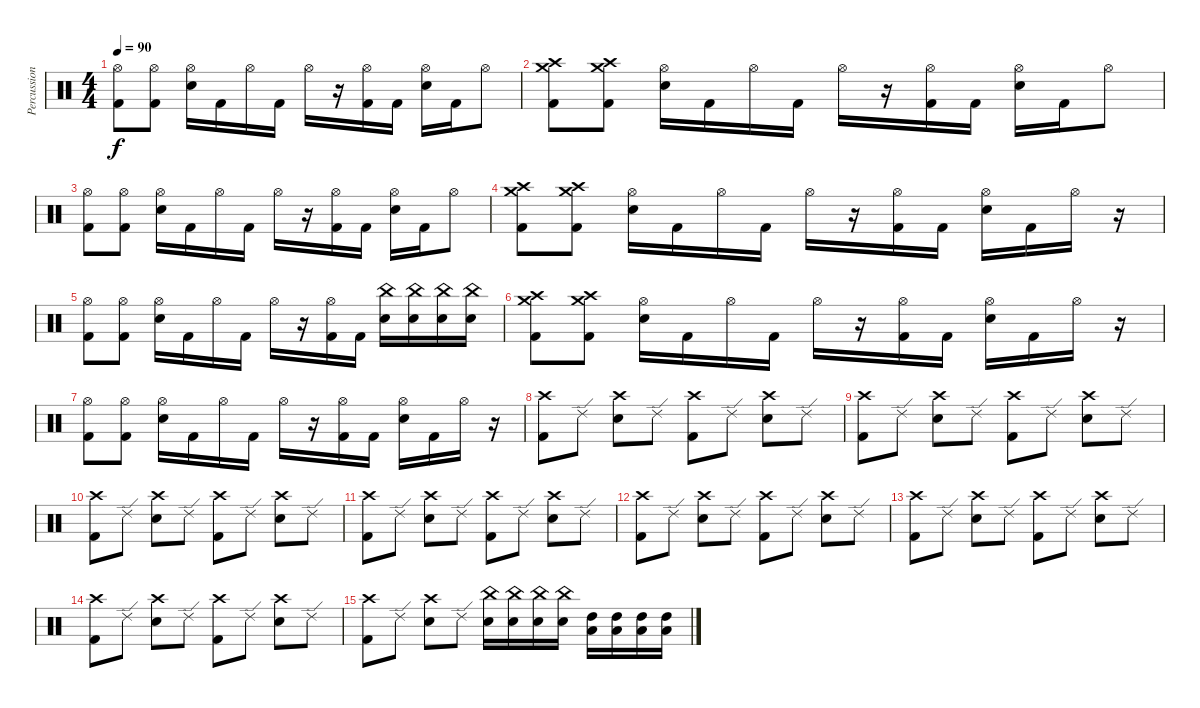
\track ("Percussion" "Percussion") {instrument percussion}
\staff {score}
\articulation defaults
\ts (4 4)
\tempo 90
\clef neutral
\ks c
("Hi-Hat (open)" "Kick (hit) 2").8{dy f} ("Hi-Hat (open)" "Kick (hit) 2").8 ("Hi-Hat (open)" "Electric Snare (hit)").16 "Kick (hit) 2".16 "Hi-Hat (open)".16 "Kick (hit) 2".16 "Hi-Hat (open)".16 r.16 ("Hi-Hat (open)" "Kick (hit) 2").16 "Kick (hit) 2".16 ("Hi-Hat (open)" "Electric Snare (hit)").16 "Kick (hit) 2".16 "Hi-Hat (open)".8 |
("Crash high (hit)" "Crash medium (hit)" "Kick (hit) 2").8 ("Crash high (hit)" "Crash medium (hit)" "Kick (hit) 2").8 ("Hi-Hat (open)" "Electric Snare (hit)").16 "Kick (hit) 2".16 "Hi-Hat (open)".16 "Kick (hit) 2".16 "Hi-Hat (open)".16 r.16 ("Hi-Hat (open)" "Kick (hit) 2").16 "Kick (hit) 2".16 ("Hi-Hat (open)" "Electric Snare (hit)").16 "Kick (hit) 2".16 "Hi-Hat (open)".8 |
("Hi-Hat (open)" "Kick (hit) 2").8 ("Hi-Hat (open)" "Kick (hit) 2").8 ("Hi-Hat (open)" "Electric Snare (hit)").16 "Kick (hit) 2".16 "Hi-Hat (open)".16 "Kick (hit) 2".16 "Hi-Hat (open)".16 r.16 ("Hi-Hat (open)" "Kick (hit) 2").16 "Kick (hit) 2".16 ("Hi-Hat (open)" "Electric Snare (hit)").16 "Kick (hit) 2".16 "Hi-Hat (open)".8 |
("Crash high (hit)" "Crash medium (hit)" "Kick (hit) 2").8 ("Crash high (hit)" "Crash medium (hit)" "Kick (hit) 2").8 ("Hi-Hat (open)" "Electric Snare (hit)").16 "Kick (hit) 2".16 "Hi-Hat (open)".16 "Kick (hit) 2".16 "Hi-Hat (open)".16 r.16 ("Hi-Hat (open)" "Kick (hit) 2").16 "Kick (hit) 2".16 ("Hi-Hat (open)" "Electric Snare (hit)").16 "Kick (hit) 2".16 "Hi-Hat (open)".16 r.16 |
("Hi-Hat (open)" "Kick (hit) 2").8 ("Hi-Hat (open)" "Kick (hit) 2").8 ("Hi-Hat (open)" "Electric Snare (hit)").16 "Kick (hit) 2".16 "Hi-Hat (open)".16 "Kick (hit) 2".16 "Hi-Hat (open)".16 r.16 ("Hi-Hat (open)" "Kick (hit) 2").16 "Kick (hit) 2".16 ("China (hit)" "Electric Snare (hit)").16 ("China (hit)" "Electric Snare (hit)").16 ("China (hit)" "Electric Snare (hit)").16 ("China (hit)" "Electric Snare (hit)").16 |
("Crash high (hit)" "Crash medium (hit)" "Kick (hit) 2").8 ("Crash high (hit)" "Crash medium (hit)" "Kick (hit) 2").8 ("Hi-Hat (open)" "Electric Snare (hit)").16 "Kick (hit) 2".16 "Hi-Hat (open)".16 "Kick (hit) 2".16 "Hi-Hat (open)".16 r.16 ("Hi-Hat (open)" "Kick (hit) 2").16 "Kick (hit) 2".16 ("Hi-Hat (open)" "Electric Snare (hit)").16 "Kick (hit) 2".16 "Hi-Hat (open)".16 r.16 |
("Hi-Hat (open)" "Kick (hit) 2").8 ("Hi-Hat (open)" "Kick (hit) 2").8 ("Hi-Hat (open)" "Electric Snare (hit)").16 "Kick (hit) 2".16 "Hi-Hat (open)".16 "Kick (hit) 2".16 "Hi-Hat (open)".16 r.16 ("Hi-Hat (open)" "Kick (hit) 2").16 "Kick (hit) 2".16 ("Hi-Hat (open)" "Electric Snare (hit)").16 "Kick (hit) 2".16 "Hi-Hat (open)".16 r.16 |
("Crash high (hit)" "Kick (hit) 2").8 "Ride (edge) 2".8 ("Crash high (hit)" "Electric Snare (hit)").8 "Ride (edge) 2".8 ("Crash high (hit)" "Kick (hit) 2").8 "Ride (edge) 2".8 ("Crash high (hit)" "Electric Snare (hit)").8 "Ride (edge) 2".8 |
("Crash high (hit)" "Kick (hit) 2").8 "Ride (edge) 2".8 ("Crash high (hit)" "Electric Snare (hit)").8 "Ride (edge) 2".8 ("Crash high (hit)" "Kick (hit) 2").8 "Ride (edge) 2".8 ("Crash high (hit)" "Electric Snare (hit)").8 "Ride (edge) 2".8 |
("Crash high (hit)" "Kick (hit) 2").8 "Ride (edge) 2".8 ("Crash high (hit)" "Electric Snare (hit)").8 "Ride (edge) 2".8 ("Crash high (hit)" "Kick (hit) 2").8 "Ride (edge) 2".8 ("Crash high (hit)" "Electric Snare (hit)").8 "Ride (edge) 2".8 |
("Crash high (hit)" "Kick (hit) 2").8 "Ride (edge) 2".8 ("Crash high (hit)" "Electric Snare (hit)").8 "Ride (edge) 2".8 ("Crash high (hit)" "Kick (hit) 2").8 "Ride (edge) 2".8 ("Crash high (hit)" "Electric Snare (hit)").8 "Ride (edge) 2".8 |
("Crash high (hit)" "Kick (hit) 2").8 "Ride (edge) 2".8 ("Crash high (hit)" "Electric Snare (hit)").8 "Ride (edge) 2".8 ("Crash high (hit)" "Kick (hit) 2").8 "Ride (edge) 2".8 ("Crash high (hit)" "Electric Snare (hit)").8 "Ride (edge) 2".8 |
("Crash high (hit)" "Kick (hit) 2").8 "Ride (edge) 2".8 ("Crash high (hit)" "Electric Snare (hit)").8 "Ride (edge) 2".8 ("Crash high (hit)" "Kick (hit) 2").8 "Ride (edge) 2".8 ("Crash high (hit)" "Electric Snare (hit)").8 "Ride (edge) 2".8 |
("Crash high (hit)" "Kick (hit) 2").8 "Ride (edge) 2".8 ("Crash high (hit)" "Electric Snare (hit)").8 "Ride (edge) 2".8 ("Crash high (hit)" "Kick (hit) 2").8 "Ride (edge) 2".8 ("Crash high (hit)" "Electric Snare (hit)").8 "Ride (edge) 2".8 |
("Crash high (hit)" "Kick (hit) 2").8 "Ride (edge) 2".8 ("Crash high (hit)" "Electric Snare (hit)").8 "Ride (edge) 2".8 ("China (hit)" "Electric Snare (hit)").16 ("China (hit)" "Electric Snare (hit)").16 ("China (hit)" "Electric Snare (hit)").16 ("China (hit)" "Electric Snare (hit)").16 ("High Tom (hit)" "Low Tom (hit)").16 ("High Tom (hit)" "Low Tom (hit)").16 ("High Tom (hit)" "Low Tom (hit)").16 ("High Tom (hit)" "Low Tom (hit)").16
